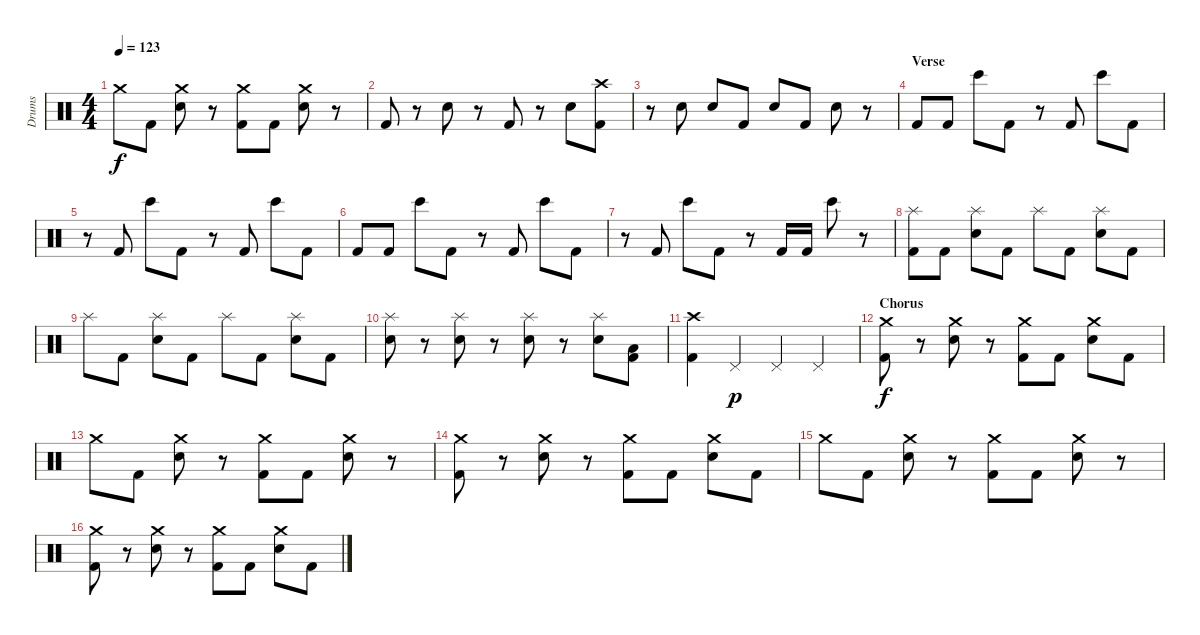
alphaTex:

\track ("Drums" "Drums") {instrument percussion}
\staff {score}
\articulation defaults
\ts (4 4)
\tempo 123
\clef neutral
\ks c "Crash medium (hit)".8{dy f} "Kick (hit) 2".8
("Crash medium (hit)" "Electric Snare (hit)").8 r.8 ("Crash medium (hit)" "Kick (hit) 2").8 "Kick (hit) 2".8 ("Crash medium (hit)" "Electric Snare (hit)").8 r.8 |
"Kick (hit) 2".8 r.8 "Electric Snare (hit)".8 r.8 "Kick (hit) 2".8 r.8 "Electric Snare (hit)".8 ("Crash high (hit)" "Kick (hit) 2").8 |
r.8 "Electric Snare (hit)".8 "Electric Snare (hit)".8 "Kick (hit) 2".8 "Electric Snare (hit)".8 "Kick (hit) 2".8 "Electric Snare (hit)".8 r.8 |
\section ("" "Verse")
"Kick (hit) 2".8 "Kick (hit) 2".8 "Bongo High (hit)".8 "Kick (hit) 2".8 r.8 "Kick (hit) 2".8 "Bongo High (hit)".8 "Kick (hit) 2".8 |
r.8 "Kick (hit) 2".8 "Bongo High (hit)".8 "Kick (hit) 2".8 r.8 "Kick (hit) 2".8 "Bongo High (hit)".8 "Kick (hit) 2".8 |
"Kick (hit) 2".8 "Kick (hit) 2".8 "Bongo High (hit)".8 "Kick (hit) 2".8 r.8 "Kick (hit) 2".8 "Bongo High (hit)".8 "Kick (hit) 2".8 |
r.8 "Kick (hit) 2".8 "Bongo High (hit)".8 "Kick (hit) 2".8 r.8 "Kick (hit) 2".16 "Kick (hit) 2".16 "Bongo High (hit)".8 r.8 |
("Splash (hit)" "Kick (hit) 2").8 "Kick (hit) 2".8 ("Splash (hit)" "Electric Snare (hit)").8 "Kick (hit) 2".8 "Splash (hit)".8 "Kick (hit) 2".8 ("Splash (hit)" "Electric Snare (hit)").8 "Kick (hit) 2".8 |
"Splash (hit)".8 "Kick (hit) 2".8 ("Splash (hit)" "Electric Snare (hit)").8 "Kick (hit) 2".8 "Splash (hit)".8 "Kick (hit) 2".8 ("Splash (hit)" "Electric Snare (hit)").8 "Kick (hit) 2".8 |
("Splash (hit)" "Electric Snare (hit)").8 r.8 ("Splash (hit)" "Electric Snare (hit)").8 r.8 ("Splash (hit)" "Electric Snare (hit)").8 r.8 ("Splash (hit)" "Electric Snare (hit)").8 ("Low Floor Tom (hit)" "Kick (hit) 2").8 |
("Crash high (hit)" "Kick (hit) 2").4 "Pedal Hi-Hat (hit)".4{dy p} "Pedal Hi-Hat (hit)".4 "Pedal Hi-Hat (hit)".4 |
\section ("" "Chorus")
("Crash medium (hit)" "Kick (hit) 2").8{dy f} r.8 ("Crash medium (hit)" "Electric Snare (hit)").8 r.8 ("Crash medium (hit)" "Kick (hit) 2").8 "Kick (hit) 2".8 ("Crash medium (hit)" "Electric Snare (hit)").8 "Kick (hit) 2".8 |
"Crash medium (hit)".8 "Kick (hit) 2".8 ("Crash medium (hit)" "Electric Snare (hit)").8 r.8 ("Crash medium (hit)" "Kick (hit) 2").8 "Kick (hit) 2".8 ("Crash medium (hit)" "Electric Snare (hit)").8 r.8 |
("Crash medium (hit)" "Kick (hit) 2").8 r.8 ("Crash medium (hit)" "Electric Snare (hit)").8 r.8 ("Crash medium (hit)" "Kick (hit) 2").8 "Kick (hit) 2".8 ("Crash medium (hit)" "Electric Snare (hit)").8 "Kick (hit) 2".8 |
"Crash medium (hit)".8 "Kick (hit) 2".8 ("Crash medium (hit)" "Electric Snare (hit)").8 r.8 ("Crash medium (hit)" "Kick (hit) 2").8 "Kick (hit) 2".8 ("Crash medium (hit)" "Electric Snare (hit)").8 r.8 |
("Crash medium (hit)" "Kick (hit) 2").8 r.8 ("Crash medium (hit)" "Electric Snare (hit)").8 r.8 ("Crash medium (hit)" "Kick (hit) 2").8 "Kick (hit) 2".8 ("Crash medium (hit)" "Electric Snare (hit)").8 "Kick (hit) 2".8
